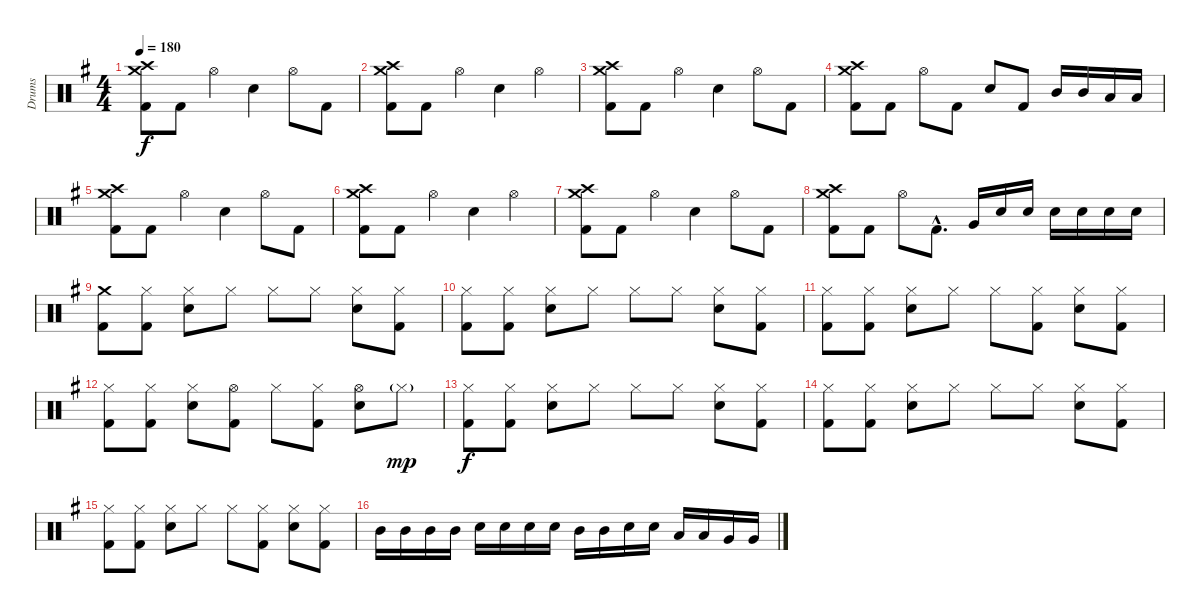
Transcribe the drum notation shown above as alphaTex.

\track ("Drums" "Drums") {instrument percussion}
\staff {score}
\articulation defaults
\ts (4 4)
\tempo 180
\clef neutral
\ks g
("Crash high (hit)" "Crash medium (hit)" "Kick (hit) 2").8{dy f} "Kick (hit) 2".8 "Hi-Hat (open)".4 "Electric Snare (hit)".4 "Hi-Hat (open)".8 "Kick (hit) 2".8 |
("Crash high (hit)" "Crash medium (hit)" "Kick (hit) 2").8 "Kick (hit) 2".8 "Hi-Hat (open)".4 "Electric Snare (hit)".4 "Hi-Hat (open)".4 |
("Crash high (hit)" "Crash medium (hit)" "Kick (hit) 2").8 "Kick (hit) 2".8 "Hi-Hat (open)".4 "Electric Snare (hit)".4 "Hi-Hat (open)".8 "Kick (hit) 2".8 |
("Crash medium (hit)" "Crash high (hit)" "Kick (hit) 2").8 "Kick (hit) 2".8 "Hi-Hat (open)".8 "Kick (hit) 2".8 "Electric Snare (hit)".8 "Kick (hit) 2".8 "Mid Tom (hit)".16 "Mid Tom (hit)".16 "Low Tom (hit)".16 "Low Tom (hit)".16 |
("Crash high (hit)" "Crash medium (hit)" "Kick (hit) 2").8 "Kick (hit) 2".8 "Hi-Hat (open)".4 "Electric Snare (hit)".4 "Hi-Hat (open)".8 "Kick (hit) 2".8 |
("Crash high (hit)" "Crash medium (hit)" "Kick (hit) 2").8 "Kick (hit) 2".8 "Hi-Hat (open)".4 "Electric Snare (hit)".4 "Hi-Hat (open)".4 |
("Crash high (hit)" "Crash medium (hit)" "Kick (hit) 2").8 "Kick (hit) 2".8 "Hi-Hat (open)".4 "Electric Snare (hit)".4 "Hi-Hat (open)".8 "Kick (hit) 2".8 |
("Crash medium (hit)" "Crash high (hit)" "Kick (hit) 2").8 "Kick (hit) 2".8 "Hi-Hat (open)".8 "Kick (hit) 2"{hac}.8{d} "Very Low Tom (hit)".16 "Electric Snare (hit)".16 "Electric Snare (hit)".16 "Electric Snare (hit)".16 "Electric Snare (hit)".16 "Electric Snare (hit)".16 "Electric Snare (hit)".16 |
("Crash medium (hit)" "Kick (hit) 2").8 ("Hi-Hat (closed)" "Kick (hit) 2").8 ("Hi-Hat (closed)" "Electric Snare (hit)").8 "Hi-Hat (closed)".8 "Hi-Hat (closed)".8 "Hi-Hat (closed)".8 ("Hi-Hat (closed)" "Electric Snare (hit)").8 ("Hi-Hat (closed)" "Kick (hit) 2").8 |
("Hi-Hat (closed)" "Kick (hit) 2").8 ("Hi-Hat (closed)" "Kick (hit) 2").8 ("Hi-Hat (closed)" "Electric Snare (hit)").8 "Hi-Hat (closed)".8 "Hi-Hat (closed)".8 "Hi-Hat (closed)".8 ("Hi-Hat (closed)" "Electric Snare (hit)").8 ("Hi-Hat (closed)" "Kick (hit) 2").8 |
("Hi-Hat (closed)" "Kick (hit) 2").8 ("Hi-Hat (closed)" "Kick (hit) 2").8 ("Hi-Hat (closed)" "Electric Snare (hit)").8 "Hi-Hat (closed)".8 "Hi-Hat (closed)".8 ("Hi-Hat (closed)" "Kick (hit) 2").8 ("Hi-Hat (closed)" "Electric Snare (hit)").8 ("Hi-Hat (closed)" "Kick (hit) 2").8 |
("Hi-Hat (closed)" "Kick (hit) 2").8 ("Hi-Hat (closed)" "Kick (hit) 2").8 ("Hi-Hat (closed)" "Electric Snare (hit)").8 ("Hi-Hat (open)" "Kick (hit) 2").8 "Hi-Hat (closed)".8 ("Hi-Hat (closed)" "Kick (hit) 2").8 ("Hi-Hat (open)" "Electric Snare (hit)").8 "Hi-Hat (closed)"{g}.8{dy mp} |
("Hi-Hat (closed)" "Kick (hit) 2").8{dy f} ("Hi-Hat (closed)" "Kick (hit) 2").8 ("Hi-Hat (closed)" "Electric Snare (hit)").8 "Hi-Hat (closed)".8 "Hi-Hat (closed)".8 "Hi-Hat (closed)".8 ("Hi-Hat (closed)" "Electric Snare (hit)").8 ("Hi-Hat (closed)" "Kick (hit) 2").8 |
("Hi-Hat (closed)" "Kick (hit) 2").8 ("Hi-Hat (closed)" "Kick (hit) 2").8 ("Hi-Hat (closed)" "Electric Snare (hit)").8 "Hi-Hat (closed)".8 "Hi-Hat (closed)".8 "Hi-Hat (closed)".8 ("Hi-Hat (closed)" "Electric Snare (hit)").8 ("Hi-Hat (closed)" "Kick (hit) 2").8 |
("Hi-Hat (closed)" "Kick (hit) 2").8 ("Hi-Hat (closed)" "Kick (hit) 2").8 ("Hi-Hat (closed)" "Electric Snare (hit)").8 "Hi-Hat (closed)".8 "Hi-Hat (closed)".8 ("Hi-Hat (closed)" "Kick (hit) 2").8 ("Hi-Hat (closed)" "Electric Snare (hit)").8 ("Hi-Hat (closed)" "Kick (hit) 2").8 |
"Mid Tom (hit)".16 "Mid Tom (hit)".16 "Mid Tom (hit)".16 "Mid Tom (hit)".16 "Electric Snare (hit)".16 "Electric Snare (hit)".16 "Electric Snare (hit)".16 "Electric Snare (hit)".16 "Mid Tom (hit)".16 "Mid Tom (hit)".16 "Electric Snare (hit)".16 "Electric Snare (hit)".16 "Low Tom (hit)".16 "Low Tom (hit)".16 "Very Low Tom (hit)".16 "Very Low Tom (hit)".16
